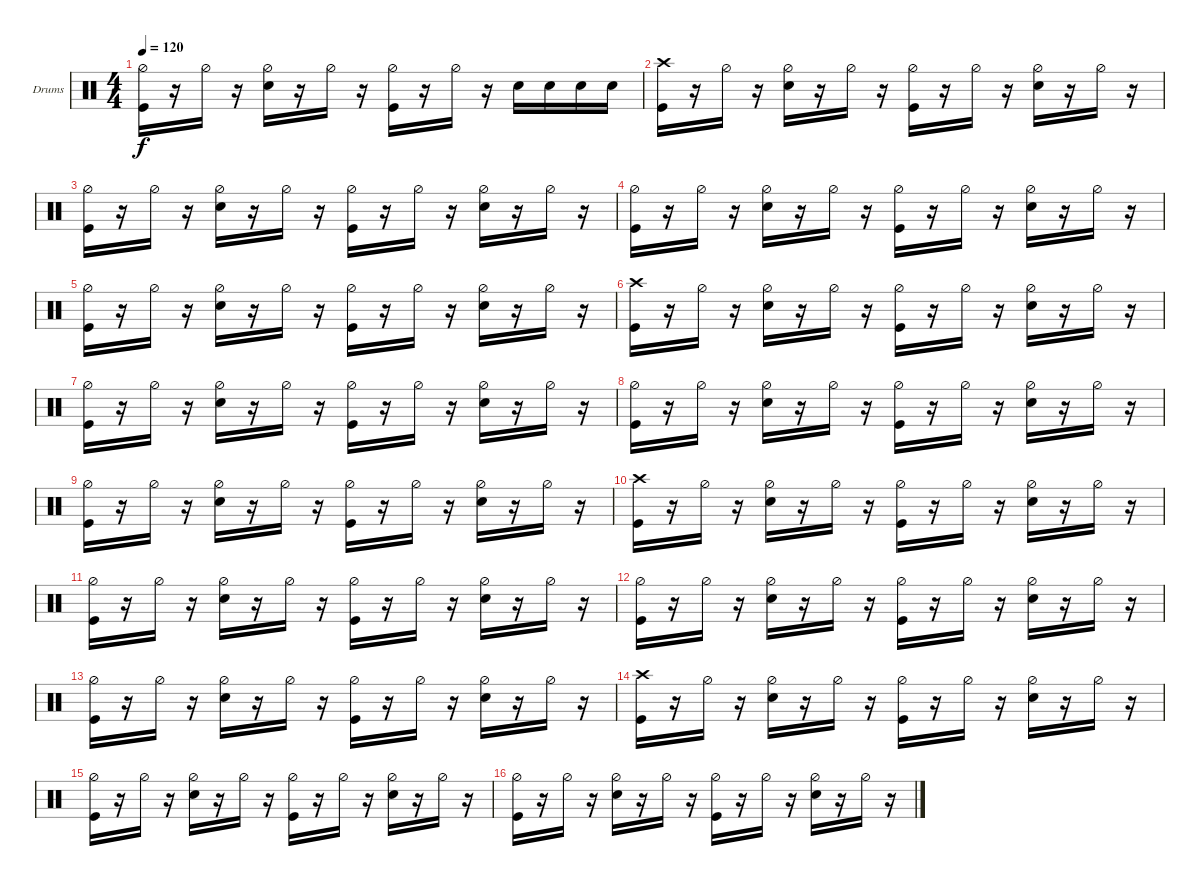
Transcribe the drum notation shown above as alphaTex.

\defaultSystemsLayout 4
\bracketExtendMode groupsimilarinstruments
\firstSystemTrackNameOrientation horizontal
\otherSystemsTrackNameOrientation horizontal
\track ("Drums  SK" "Drums") {instrument percussion}
\staff {score}
\articulation defaults
\ts (4 4)
\tempo 120
\clef neutral
\ks c
("Kick (hit)" "Hi-Hat (half)").16{dy f} r.16 "Hi-Hat (half)".16 r.16 ("Snare (hit) 2" "Hi-Hat (half)").16 r.16 "Hi-Hat (half)".16 r.16 ("Kick (hit)" "Hi-Hat (half)").16 r.16 "Hi-Hat (half)".16 r.16 "Snare (hit) 2".16 "Snare (hit) 2".16 "Snare (hit) 2".16 "Snare (hit) 2".16 |
("Kick (hit)" "Crash high (hit)").16 r.16 "Hi-Hat (half)".16 r.16 ("Snare (hit) 2" "Hi-Hat (half)").16 r.16 "Hi-Hat (half)".16 r.16 ("Kick (hit)" "Hi-Hat (half)").16 r.16 "Hi-Hat (half)".16 r.16 ("Snare (hit) 2" "Hi-Hat (half)").16 r.16 "Hi-Hat (half)".16 r.16 |
("Kick (hit)" "Hi-Hat (half)").16 r.16 "Hi-Hat (half)".16 r.16 ("Snare (hit) 2" "Hi-Hat (half)").16 r.16 "Hi-Hat (half)".16 r.16 ("Kick (hit)" "Hi-Hat (half)").16 r.16 "Hi-Hat (half)".16 r.16 ("Snare (hit) 2" "Hi-Hat (half)").16 r.16 "Hi-Hat (half)".16 r.16 |
("Kick (hit)" "Hi-Hat (half)").16 r.16 "Hi-Hat (half)".16 r.16 ("Snare (hit) 2" "Hi-Hat (half)").16 r.16 "Hi-Hat (half)".16 r.16 ("Kick (hit)" "Hi-Hat (half)").16 r.16 "Hi-Hat (half)".16 r.16 ("Snare (hit) 2" "Hi-Hat (half)").16 r.16 "Hi-Hat (half)".16 r.16 |
("Kick (hit)" "Hi-Hat (half)").16 r.16 "Hi-Hat (half)".16 r.16 ("Snare (hit) 2" "Hi-Hat (half)").16 r.16 "Hi-Hat (half)".16 r.16 ("Kick (hit)" "Hi-Hat (half)").16 r.16 "Hi-Hat (half)".16 r.16 ("Snare (hit) 2" "Hi-Hat (half)").16 r.16 "Hi-Hat (half)".16 r.16 |
("Kick (hit)" "Crash high (hit)").16 r.16 "Hi-Hat (half)".16 r.16 ("Snare (hit) 2" "Hi-Hat (half)").16 r.16 "Hi-Hat (half)".16 r.16 ("Kick (hit)" "Hi-Hat (half)").16 r.16 "Hi-Hat (half)".16 r.16 ("Snare (hit) 2" "Hi-Hat (half)").16 r.16 "Hi-Hat (half)".16 r.16 |
("Kick (hit)" "Hi-Hat (half)").16 r.16 "Hi-Hat (half)".16 r.16 ("Snare (hit) 2" "Hi-Hat (half)").16 r.16 "Hi-Hat (half)".16 r.16 ("Kick (hit)" "Hi-Hat (half)").16 r.16 "Hi-Hat (half)".16 r.16 ("Snare (hit) 2" "Hi-Hat (half)").16 r.16 "Hi-Hat (half)".16 r.16 |
("Kick (hit)" "Hi-Hat (half)").16 r.16 "Hi-Hat (half)".16 r.16 ("Snare (hit) 2" "Hi-Hat (half)").16 r.16 "Hi-Hat (half)".16 r.16 ("Kick (hit)" "Hi-Hat (half)").16 r.16 "Hi-Hat (half)".16 r.16 ("Snare (hit) 2" "Hi-Hat (half)").16 r.16 "Hi-Hat (half)".16 r.16 |
("Kick (hit)" "Hi-Hat (half)").16 r.16 "Hi-Hat (half)".16 r.16 ("Snare (hit) 2" "Hi-Hat (half)").16 r.16 "Hi-Hat (half)".16 r.16 ("Kick (hit)" "Hi-Hat (half)").16 r.16 "Hi-Hat (half)".16 r.16 ("Snare (hit) 2" "Hi-Hat (half)").16 r.16 "Hi-Hat (half)".16 r.16 |
("Kick (hit)" "Crash high (hit)").16 r.16 "Hi-Hat (half)".16 r.16 ("Snare (hit) 2" "Hi-Hat (half)").16 r.16 "Hi-Hat (half)".16 r.16 ("Kick (hit)" "Hi-Hat (half)").16 r.16 "Hi-Hat (half)".16 r.16 ("Snare (hit) 2" "Hi-Hat (half)").16 r.16 "Hi-Hat (half)".16 r.16 |
("Kick (hit)" "Hi-Hat (half)").16 r.16 "Hi-Hat (half)".16 r.16 ("Snare (hit) 2" "Hi-Hat (half)").16 r.16 "Hi-Hat (half)".16 r.16 ("Kick (hit)" "Hi-Hat (half)").16 r.16 "Hi-Hat (half)".16 r.16 ("Snare (hit) 2" "Hi-Hat (half)").16 r.16 "Hi-Hat (half)".16 r.16 |
("Kick (hit)" "Hi-Hat (half)").16 r.16 "Hi-Hat (half)".16 r.16 ("Snare (hit) 2" "Hi-Hat (half)").16 r.16 "Hi-Hat (half)".16 r.16 ("Kick (hit)" "Hi-Hat (half)").16 r.16 "Hi-Hat (half)".16 r.16 ("Snare (hit) 2" "Hi-Hat (half)").16 r.16 "Hi-Hat (half)".16 r.16 |
("Kick (hit)" "Hi-Hat (half)").16 r.16 "Hi-Hat (half)".16 r.16 ("Snare (hit) 2" "Hi-Hat (half)").16 r.16 "Hi-Hat (half)".16 r.16 ("Kick (hit)" "Hi-Hat (half)").16 r.16 "Hi-Hat (half)".16 r.16 ("Snare (hit) 2" "Hi-Hat (half)").16 r.16 "Hi-Hat (half)".16 r.16 |
("Kick (hit)" "Crash high (hit)").16 r.16 "Hi-Hat (half)".16 r.16 ("Snare (hit) 2" "Hi-Hat (half)").16 r.16 "Hi-Hat (half)".16 r.16 ("Kick (hit)" "Hi-Hat (half)").16 r.16 "Hi-Hat (half)".16 r.16 ("Snare (hit) 2" "Hi-Hat (half)").16 r.16 "Hi-Hat (half)".16 r.16 |
("Kick (hit)" "Hi-Hat (half)").16 r.16 "Hi-Hat (half)".16 r.16 ("Snare (hit) 2" "Hi-Hat (half)").16 r.16 "Hi-Hat (half)".16 r.16 ("Kick (hit)" "Hi-Hat (half)").16 r.16 "Hi-Hat (half)".16 r.16 ("Snare (hit) 2" "Hi-Hat (half)").16 r.16 "Hi-Hat (half)".16 r.16 |
("Kick (hit)" "Hi-Hat (half)").16 r.16 "Hi-Hat (half)".16 r.16 ("Snare (hit) 2" "Hi-Hat (half)").16 r.16 "Hi-Hat (half)".16 r.16 ("Kick (hit)" "Hi-Hat (half)").16 r.16 "Hi-Hat (half)".16 r.16 ("Snare (hit) 2" "Hi-Hat (half)").16 r.16 "Hi-Hat (half)".16 r.16
